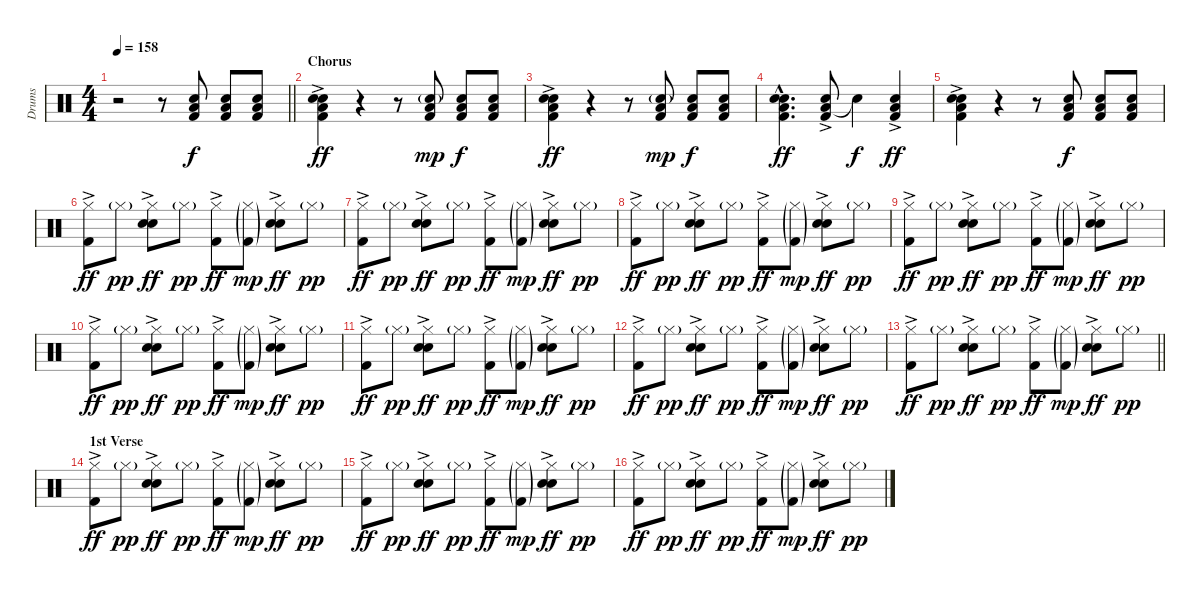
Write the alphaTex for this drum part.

\track ("Drums" "Drums") {instrument percussion}
\staff {score}
\articulation defaults
\ts (4 4)
\tempo 158
\clef neutral
\barLineRight lightlight
\ks c
r.2{dy f} r.8 ("Low Floor Tom (hit)" "Snare (hit) 2" "Kick (hit) 2").8 ("Low Floor Tom (hit)" "Snare (hit) 2" "Kick (hit) 2").8 ("Low Floor Tom (hit)" "Snare (hit) 2" "Kick (hit) 2").8 |
\section ("" "Chorus")
("Low Floor Tom (hit)" "Electric Snare (hit)"{ac} "Snare (hit) 2" "Kick (hit) 2").4{dy ff} r.4 r.8 ("Low Floor Tom (hit)" "Snare (hit) 2"{g} "Kick (hit) 2").8{dy mp} ("Low Floor Tom (hit)" "Snare (hit) 2" "Kick (hit) 2").8{dy f} ("Low Floor Tom (hit)" "Snare (hit) 2" "Kick (hit) 2").8 |
("Low Floor Tom (hit)" "Electric Snare (hit)"{ac} "Snare (hit) 2" "Kick (hit) 2").4{dy ff} r.4 r.8 ("Low Floor Tom (hit)" "Snare (hit) 2"{g} "Kick (hit) 2").8{dy mp} ("Low Floor Tom (hit)" "Snare (hit) 2" "Kick (hit) 2").8{dy f} ("Low Floor Tom (hit)" "Snare (hit) 2" "Kick (hit) 2").8 |
("Low Floor Tom (hit)"{hac} "Electric Snare (hit)"{hac} "Snare (hit) 2"{hac} "Kick (hit) 2"{hac}).4{d dy ff} ("Low Floor Tom (hit)" "Snare (hit) 2" "Kick (hit) 2"{ac}).8 "Snare (hit)"{t}.4{dy f} ("Low Floor Tom (hit)" "Snare (hit) 2" "Kick (hit) 2"{ac}).4{dy ff} |
("Low Floor Tom (hit)" "Electric Snare (hit)"{ac} "Snare (hit) 2" "Kick (hit) 2").4 r.4 r.8 ("Low Floor Tom (hit)" "Snare (hit) 2" "Kick (hit) 2").8{dy f} ("Low Floor Tom (hit)" "Snare (hit) 2" "Kick (hit) 2").8 ("Low Floor Tom (hit)" "Snare (hit) 2" "Kick (hit) 2").8 |
("Hi-Hat (closed)" "Kick (hit) 2"{ac}).8{dy ff} "Hi-Hat (closed)"{g}.8{dy pp} ("Hi-Hat (closed)" "Electric Snare (hit)"{ac} "Snare (hit) 2").8{dy ff} "Hi-Hat (closed)"{g}.8{dy pp} ("Hi-Hat (closed)" "Kick (hit) 2"{ac}).8{dy ff} ("Hi-Hat (closed)"{g} "Kick (hit) 2"{g}).8{dy mp} ("Hi-Hat (closed)" "Electric Snare (hit)"{ac} "Snare (hit) 2").8{dy ff} "Hi-Hat (closed)"{g}.8{dy pp} |
("Hi-Hat (closed)" "Kick (hit) 2"{ac}).8{dy ff} "Hi-Hat (closed)"{g}.8{dy pp} ("Hi-Hat (closed)" "Electric Snare (hit)"{ac} "Snare (hit) 2").8{dy ff} "Hi-Hat (closed)"{g}.8{dy pp} ("Hi-Hat (closed)" "Kick (hit) 2"{ac}).8{dy ff} ("Hi-Hat (closed)"{g} "Kick (hit) 2"{g}).8{dy mp} ("Hi-Hat (closed)" "Electric Snare (hit)"{ac} "Snare (hit) 2").8{dy ff} "Hi-Hat (closed)"{g}.8{dy pp} |
("Hi-Hat (closed)" "Kick (hit) 2"{ac}).8{dy ff} "Hi-Hat (closed)"{g}.8{dy pp} ("Hi-Hat (closed)" "Electric Snare (hit)"{ac} "Snare (hit) 2").8{dy ff} "Hi-Hat (closed)"{g}.8{dy pp} ("Hi-Hat (closed)" "Kick (hit) 2"{ac}).8{dy ff} ("Hi-Hat (closed)"{g} "Kick (hit) 2"{g}).8{dy mp} ("Hi-Hat (closed)" "Electric Snare (hit)"{ac} "Snare (hit) 2").8{dy ff} "Hi-Hat (closed)"{g}.8{dy pp} |
("Hi-Hat (closed)" "Kick (hit) 2"{ac}).8{dy ff} "Hi-Hat (closed)"{g}.8{dy pp} ("Hi-Hat (closed)" "Electric Snare (hit)"{ac} "Snare (hit) 2").8{dy ff} "Hi-Hat (closed)"{g}.8{dy pp} ("Hi-Hat (closed)" "Kick (hit) 2"{ac}).8{dy ff} ("Hi-Hat (closed)"{g} "Kick (hit) 2"{g}).8{dy mp} ("Hi-Hat (closed)" "Electric Snare (hit)"{ac} "Snare (hit) 2").8{dy ff} "Hi-Hat (closed)"{g}.8{dy pp} |
("Hi-Hat (closed)" "Kick (hit) 2"{ac}).8{dy ff} "Hi-Hat (closed)"{g}.8{dy pp} ("Hi-Hat (closed)" "Electric Snare (hit)"{ac} "Snare (hit) 2").8{dy ff} "Hi-Hat (closed)"{g}.8{dy pp} ("Hi-Hat (closed)" "Kick (hit) 2"{ac}).8{dy ff} ("Hi-Hat (closed)"{g} "Kick (hit) 2"{g}).8{dy mp} ("Hi-Hat (closed)" "Electric Snare (hit)"{ac} "Snare (hit) 2").8{dy ff} "Hi-Hat (closed)"{g}.8{dy pp} |
("Hi-Hat (closed)" "Kick (hit) 2"{ac}).8{dy ff} "Hi-Hat (closed)"{g}.8{dy pp} ("Hi-Hat (closed)" "Electric Snare (hit)"{ac} "Snare (hit) 2").8{dy ff} "Hi-Hat (closed)"{g}.8{dy pp} ("Hi-Hat (closed)" "Kick (hit) 2"{ac}).8{dy ff} ("Hi-Hat (closed)"{g} "Kick (hit) 2"{g}).8{dy mp} ("Hi-Hat (closed)" "Electric Snare (hit)"{ac} "Snare (hit) 2").8{dy ff} "Hi-Hat (closed)"{g}.8{dy pp} |
("Hi-Hat (closed)" "Kick (hit) 2"{ac}).8{dy ff} "Hi-Hat (closed)"{g}.8{dy pp} ("Hi-Hat (closed)" "Electric Snare (hit)"{ac} "Snare (hit) 2").8{dy ff} "Hi-Hat (closed)"{g}.8{dy pp} ("Hi-Hat (closed)" "Kick (hit) 2"{ac}).8{dy ff} ("Hi-Hat (closed)"{g} "Kick (hit) 2"{g}).8{dy mp} ("Hi-Hat (closed)" "Electric Snare (hit)"{ac} "Snare (hit) 2").8{dy ff} "Hi-Hat (closed)"{g}.8{dy pp} |
\barLineRight lightlight
("Hi-Hat (closed)" "Kick (hit) 2"{ac}).8{dy ff} "Hi-Hat (closed)"{g}.8{dy pp} ("Hi-Hat (closed)" "Electric Snare (hit)"{ac} "Snare (hit) 2").8{dy ff} "Hi-Hat (closed)"{g}.8{dy pp} ("Hi-Hat (closed)" "Kick (hit) 2"{ac}).8{dy ff} ("Hi-Hat (closed)"{g} "Kick (hit) 2"{g}).8{dy mp} ("Hi-Hat (closed)" "Electric Snare (hit)"{ac} "Snare (hit) 2").8{dy ff} "Hi-Hat (closed)"{g}.8{dy pp} |
\section ("" "1st Verse")
("Hi-Hat (closed)" "Kick (hit) 2"{ac}).8{dy ff} "Hi-Hat (closed)"{g}.8{dy pp} ("Hi-Hat (closed)" "Electric Snare (hit)"{ac} "Snare (hit) 2").8{dy ff} "Hi-Hat (closed)"{g}.8{dy pp} ("Hi-Hat (closed)" "Kick (hit) 2"{ac}).8{dy ff} ("Hi-Hat (closed)"{g} "Kick (hit) 2"{g}).8{dy mp} ("Hi-Hat (closed)" "Electric Snare (hit)"{ac} "Snare (hit) 2").8{dy ff} "Hi-Hat (closed)"{g}.8{dy pp} |
("Hi-Hat (closed)" "Kick (hit) 2"{ac}).8{dy ff} "Hi-Hat (closed)"{g}.8{dy pp} ("Hi-Hat (closed)" "Electric Snare (hit)"{ac} "Snare (hit) 2").8{dy ff} "Hi-Hat (closed)"{g}.8{dy pp} ("Hi-Hat (closed)" "Kick (hit) 2"{ac}).8{dy ff} ("Hi-Hat (closed)"{g} "Kick (hit) 2"{g}).8{dy mp} ("Hi-Hat (closed)" "Electric Snare (hit)"{ac} "Snare (hit) 2").8{dy ff} "Hi-Hat (closed)"{g}.8{dy pp} |
("Hi-Hat (closed)" "Kick (hit) 2"{ac}).8{dy ff} "Hi-Hat (closed)"{g}.8{dy pp} ("Hi-Hat (closed)" "Electric Snare (hit)"{ac} "Snare (hit) 2").8{dy ff} "Hi-Hat (closed)"{g}.8{dy pp} ("Hi-Hat (closed)" "Kick (hit) 2"{ac}).8{dy ff} ("Hi-Hat (closed)"{g} "Kick (hit) 2"{g}).8{dy mp} ("Hi-Hat (closed)" "Electric Snare (hit)"{ac} "Snare (hit) 2").8{dy ff} "Hi-Hat (closed)"{g}.8{dy pp}
